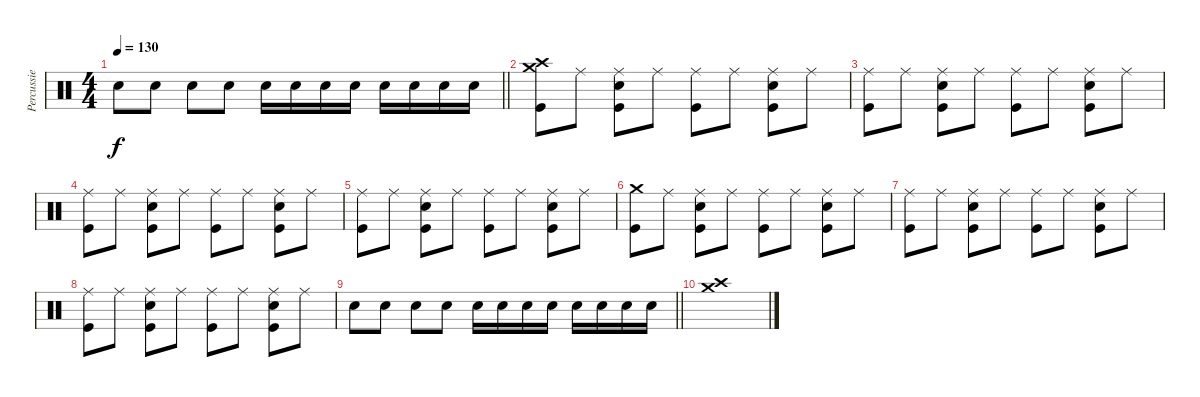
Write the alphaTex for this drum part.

\track ("Percussie" "Percussie") {instrument percussion}
\staff {score}
\articulation defaults
\ts (4 4)
\tempo 130
\clef neutral
\barLineRight lightlight
\ks c "Snare (hit) 2".8{dy f} "Snare (hit) 2".8 "Snare (hit) 2".8 "Snare (hit) 2".8 "Snare (hit) 2".16 "Snare (hit) 2".16 "Snare (hit) 2".16 "Snare (hit) 2".16 "Snare (hit) 2".16 "Snare (hit) 2".16 "Snare (hit) 2".16 "Snare (hit) 2".16
|
("Crash high (hit)" "Crash medium (hit)" "Kick (hit)").8 "Ride (middle)".8 ("Ride (middle)" "Snare (hit) 2" "Kick (hit)").8 "Ride (middle)".8 ("Ride (middle)" "Kick (hit)").8 "Ride (middle)".8 ("Ride (middle)" "Snare (hit) 2" "Kick (hit)").8 "Ride (middle)".8 |
("Ride (middle)" "Kick (hit)").8 "Ride (middle)".8 ("Ride (middle)" "Snare (hit) 2" "Kick (hit)").8 "Ride (middle)".8 ("Ride (middle)" "Kick (hit)").8 "Ride (middle)".8 ("Ride (middle)" "Snare (hit) 2" "Kick (hit)").8 "Ride (middle)".8 |
("Ride (middle)" "Kick (hit)").8 "Ride (middle)".8 ("Ride (middle)" "Snare (hit) 2" "Kick (hit)").8 "Ride (middle)".8 ("Ride (middle)" "Kick (hit)").8 "Ride (middle)".8 ("Ride (middle)" "Snare (hit) 2" "Kick (hit)").8 "Ride (middle)".8 |
("Ride (middle)" "Kick (hit)").8 "Ride (middle)".8 ("Ride (middle)" "Snare (hit) 2" "Kick (hit)").8 "Ride (middle)".8 ("Ride (middle)" "Kick (hit)").8 "Ride (middle)".8 ("Ride (middle)" "Snare (hit) 2" "Kick (hit)").8 "Ride (middle)".8 |
("Crash medium (hit)" "Kick (hit)").8 "Ride (middle)".8 ("Ride (middle)" "Snare (hit) 2" "Kick (hit)").8 "Ride (middle)".8 ("Ride (middle)" "Kick (hit)").8 "Ride (middle)".8 ("Ride (middle)" "Snare (hit) 2" "Kick (hit)").8 "Ride (middle)".8 |
("Ride (middle)" "Kick (hit)").8 "Ride (middle)".8 ("Ride (middle)" "Snare (hit) 2" "Kick (hit)").8 "Ride (middle)".8 ("Ride (middle)" "Kick (hit)").8 "Ride (middle)".8 ("Ride (middle)" "Snare (hit) 2" "Kick (hit)").8 "Ride (middle)".8 |
("Ride (middle)" "Kick (hit)").8 "Ride (middle)".8 ("Ride (middle)" "Snare (hit) 2" "Kick (hit)").8 "Ride (middle)".8 ("Ride (middle)" "Kick (hit)").8 "Ride (middle)".8 ("Ride (middle)" "Snare (hit) 2" "Kick (hit)").8 "Ride (middle)".8 |
\barLineRight lightlight "Snare (hit) 2".8 "Snare (hit) 2".8 "Snare (hit) 2".8 "Snare (hit) 2".8 "Snare (hit) 2".16 "Snare (hit) 2".16 "Snare (hit) 2".16 "Snare (hit) 2".16 "Snare (hit) 2".16 "Snare (hit) 2".16 "Snare (hit) 2".16 "Snare (hit) 2".16
|
("Crash medium (hit)" "Crash high (hit)").1
